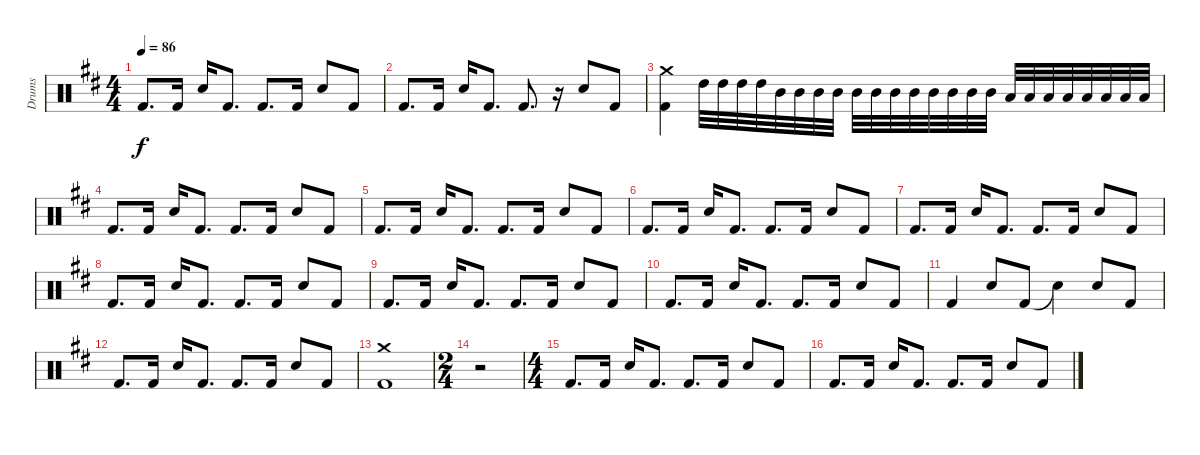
\track ("Drums" "Drums") {instrument percussion}
\staff {score}
\articulation defaults
\ts (4 4)
\tempo 86
\clef neutral
\ks d "Kick (hit) 2".8{d dy f} "Kick (hit) 2".16 "Electric Snare (hit)".16 "Kick (hit) 2".8{d} "Kick (hit) 2".8{d} "Kick (hit) 2".16 "Electric Snare (hit)".8 "Kick (hit) 2".8
|
"Kick (hit) 2".8{d} "Kick (hit) 2".16 "Electric Snare (hit)".16 "Kick (hit) 2".8{d} "Kick (hit) 2".8{d} r.16 "Electric Snare (hit)".8 "Kick (hit) 2".8 |
("Crash medium (hit)" "Kick (hit) 2").4 "High Tom (hit)".32 "High Tom (hit)".32 "High Tom (hit)".32 "High Tom (hit)".32 "Mid Tom (hit)".32 "Mid Tom (hit)".32 "Mid Tom (hit)".32 "Mid Tom (hit)".32 "Mid Tom (hit)".32 "Mid Tom (hit)".32 "Mid Tom (hit)".32 "Mid Tom (hit)".32 "Mid Tom (hit)".32 "Mid Tom (hit)".32 "Mid Tom (hit)".32 "Mid Tom (hit)".32 "Low Tom (hit)".32 "Low Tom (hit)".32 "Low Tom (hit)".32 "Low Tom (hit)".32 "Low Tom (hit)".32 "Low Tom (hit)".32 "Low Tom (hit)".32 "Low Tom (hit)".32 |
"Kick (hit) 2".8{d} "Kick (hit) 2".16 "Electric Snare (hit)".16 "Kick (hit) 2".8{d} "Kick (hit) 2".8{d} "Kick (hit) 2".16 "Electric Snare (hit)".8 "Kick (hit) 2".8 |
"Kick (hit) 2".8{d} "Kick (hit) 2".16 "Electric Snare (hit)".16 "Kick (hit) 2".8{d} "Kick (hit) 2".8{d} "Kick (hit) 2".16 "Electric Snare (hit)".8 "Kick (hit) 2".8 |
"Kick (hit) 2".8{d} "Kick (hit) 2".16 "Electric Snare (hit)".16 "Kick (hit) 2".8{d} "Kick (hit) 2".8{d} "Kick (hit) 2".16 "Electric Snare (hit)".8 "Kick (hit) 2".8 |
"Kick (hit) 2".8{d} "Kick (hit) 2".16 "Electric Snare (hit)".16 "Kick (hit) 2".8{d} "Kick (hit) 2".8{d} "Kick (hit) 2".16 "Electric Snare (hit)".8 "Kick (hit) 2".8 |
"Kick (hit) 2".8{d} "Kick (hit) 2".16 "Electric Snare (hit)".16 "Kick (hit) 2".8{d} "Kick (hit) 2".8{d} "Kick (hit) 2".16 "Electric Snare (hit)".8 "Kick (hit) 2".8 |
"Kick (hit) 2".8{d} "Kick (hit) 2".16 "Electric Snare (hit)".16 "Kick (hit) 2".8{d} "Kick (hit) 2".8{d} "Kick (hit) 2".16 "Electric Snare (hit)".8 "Kick (hit) 2".8 |
"Kick (hit) 2".8{d} "Kick (hit) 2".16 "Electric Snare (hit)".16 "Kick (hit) 2".8{d} "Kick (hit) 2".8{d} "Kick (hit) 2".16 "Electric Snare (hit)".8 "Kick (hit) 2".8 |
"Kick (hit) 2".4 "Electric Snare (hit)".8 "Kick (hit) 2".8 "Snare (hit)"{t}.4 "Electric Snare (hit)".8 "Kick (hit) 2".8 |
"Kick (hit) 2".8{d} "Kick (hit) 2".16 "Electric Snare (hit)".16 "Kick (hit) 2".8{d} "Kick (hit) 2".8{d} "Kick (hit) 2".16 "Electric Snare (hit)".8 "Kick (hit) 2".8 |
("Crash medium (hit)" "Kick (hit) 2").1 |
\ts (2 4)
r.2 |
\ts (4 4)
"Kick (hit) 2".8{d} "Kick (hit) 2".16 "Electric Snare (hit)".16 "Kick (hit) 2".8{d} "Kick (hit) 2".8{d} "Kick (hit) 2".16 "Electric Snare (hit)".8 "Kick (hit) 2".8 |
"Kick (hit) 2".8{d} "Kick (hit) 2".16 "Electric Snare (hit)".16 "Kick (hit) 2".8{d} "Kick (hit) 2".8{d} "Kick (hit) 2".16 "Electric Snare (hit)".8 "Kick (hit) 2".8
